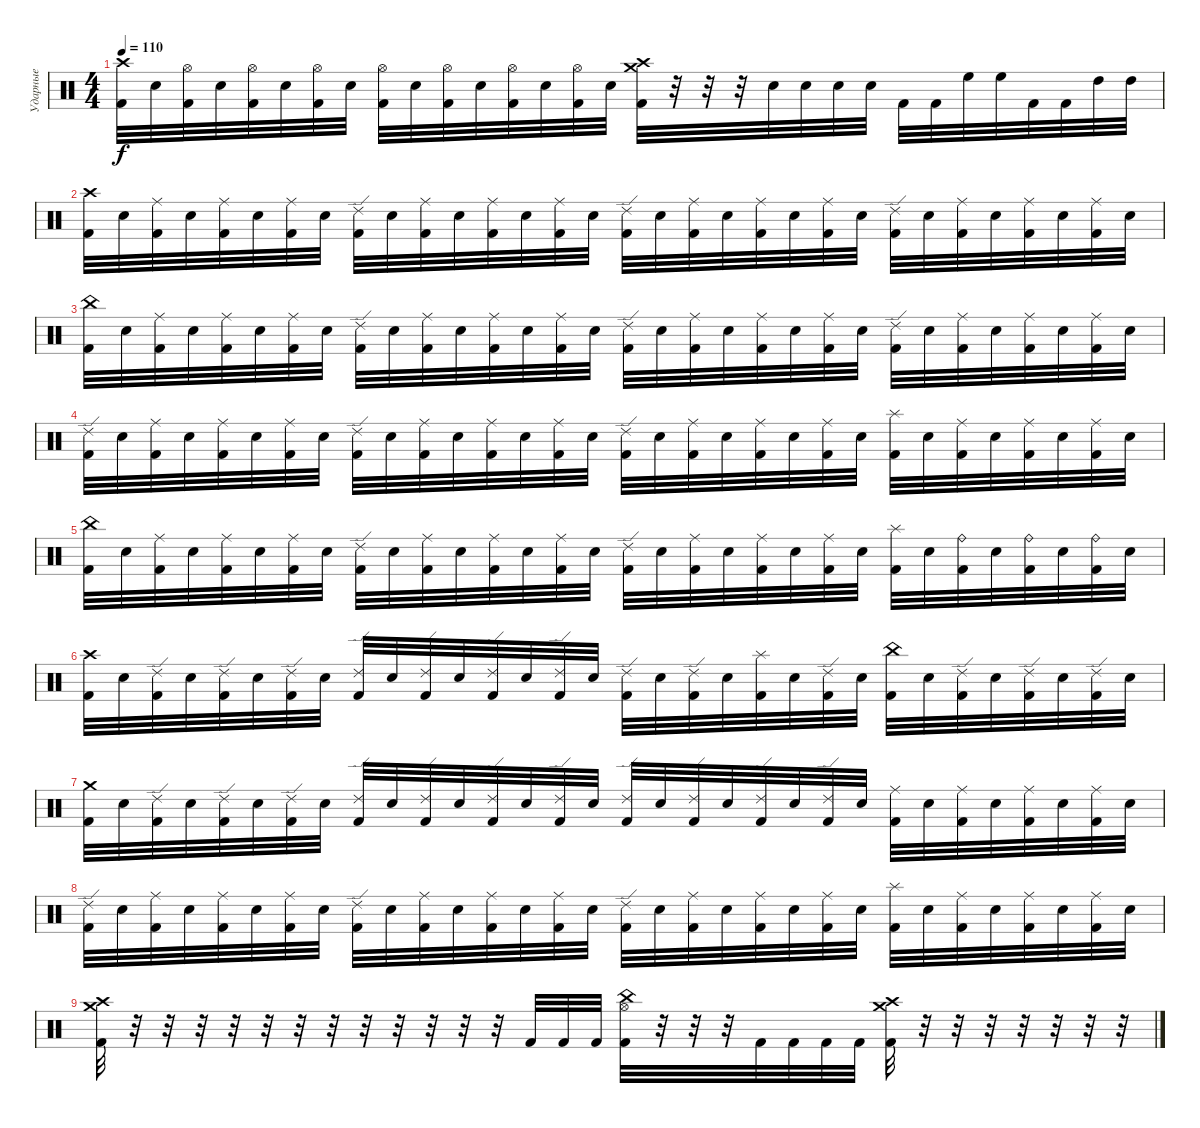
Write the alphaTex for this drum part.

\track ("Ударные" "Ударные") {instrument percussion}
\staff {score}
\articulation defaults
\ts (4 4)
\tempo 110
\clef neutral
\ks c
("Crash high (hit)" "Kick (hit) 2").32{dy f} "Electric Snare (hit)".32 ("Hi-Hat (open)" "Kick (hit) 2").32 "Electric Snare (hit)".32 ("Hi-Hat (open)" "Kick (hit) 2").32 "Electric Snare (hit)".32 ("Hi-Hat (open)" "Kick (hit) 2").32 "Electric Snare (hit)".32 ("Hi-Hat (open)" "Kick (hit) 2").32 "Electric Snare (hit)".32 ("Hi-Hat (open)" "Kick (hit) 2").32 "Electric Snare (hit)".32 ("Hi-Hat (open)" "Kick (hit) 2").32 "Electric Snare (hit)".32 ("Hi-Hat (open)" "Kick (hit) 2").32 "Electric Snare (hit)".32 ("Crash medium (hit)" "Crash high (hit)" "Kick (hit) 2").32 r.32 r.32 r.32 "Electric Snare (hit)".32 "Electric Snare (hit)".32 "Electric Snare (hit)".32 "Electric Snare (hit)".32 "Kick (hit) 2".32 "Kick (hit) 2".32 "High Floor Tom (hit)".32 "High Floor Tom (hit)".32 "Kick (hit) 2".32 "Kick (hit) 2".32 "High Tom (hit)".32 "High Tom (hit)".32 |
("Crash high (hit)" "Kick (hit) 2").32 "Electric Snare (hit)".32 ("Ride (middle)" "Kick (hit) 2").32 "Electric Snare (hit)".32 ("Ride (middle)" "Kick (hit) 2").32 "Electric Snare (hit)".32 ("Ride (middle)" "Kick (hit) 2").32 "Electric Snare (hit)".32 ("Ride (edge) 2" "Kick (hit) 2").32 "Electric Snare (hit)".32 ("Ride (middle)" "Kick (hit) 2").32 "Electric Snare (hit)".32 ("Ride (middle)" "Kick (hit) 2").32 "Electric Snare (hit)".32 ("Ride (middle)" "Kick (hit) 2").32 "Electric Snare (hit)".32 ("Ride (edge) 2" "Kick (hit) 2").32 "Electric Snare (hit)".32 ("Ride (middle)" "Kick (hit) 2").32 "Electric Snare (hit)".32 ("Ride (middle)" "Kick (hit) 2").32 "Electric Snare (hit)".32 ("Ride (middle)" "Kick (hit) 2").32 "Electric Snare (hit)".32 ("Ride (edge) 2" "Kick (hit) 2").32 "Electric Snare (hit)".32 ("Ride (middle)" "Kick (hit) 2").32 "Electric Snare (hit)".32 ("Ride (middle)" "Kick (hit) 2").32 "Electric Snare (hit)".32 ("Ride (middle)" "Kick (hit) 2").32 "Electric Snare (hit)".32 |
("China (hit)" "Kick (hit) 2").32 "Electric Snare (hit)".32 ("Ride (middle)" "Kick (hit) 2").32 "Electric Snare (hit)".32 ("Ride (middle)" "Kick (hit) 2").32 "Electric Snare (hit)".32 ("Ride (middle)" "Kick (hit) 2").32 "Electric Snare (hit)".32 ("Ride (edge) 2" "Kick (hit) 2").32 "Electric Snare (hit)".32 ("Ride (middle)" "Kick (hit) 2").32 "Electric Snare (hit)".32 ("Ride (middle)" "Kick (hit) 2").32 "Electric Snare (hit)".32 ("Ride (middle)" "Kick (hit) 2").32 "Electric Snare (hit)".32 ("Ride (edge) 2" "Kick (hit) 2").32 "Electric Snare (hit)".32 ("Ride (middle)" "Kick (hit) 2").32 "Electric Snare (hit)".32 ("Ride (middle)" "Kick (hit) 2").32 "Electric Snare (hit)".32 ("Ride (middle)" "Kick (hit) 2").32 "Electric Snare (hit)".32 ("Ride (edge) 2" "Kick (hit) 2").32 "Electric Snare (hit)".32 ("Ride (middle)" "Kick (hit) 2").32 "Electric Snare (hit)".32 ("Ride (middle)" "Kick (hit) 2").32 "Electric Snare (hit)".32 ("Ride (middle)" "Kick (hit) 2").32 "Electric Snare (hit)".32 |
("Ride (edge) 2" "Kick (hit) 2").32 "Electric Snare (hit)".32 ("Ride (middle)" "Kick (hit) 2").32 "Electric Snare (hit)".32 ("Ride (middle)" "Kick (hit) 2").32 "Electric Snare (hit)".32 ("Ride (middle)" "Kick (hit) 2").32 "Electric Snare (hit)".32 ("Ride (edge) 2" "Kick (hit) 2").32 "Electric Snare (hit)".32 ("Ride (middle)" "Kick (hit) 2").32 "Electric Snare (hit)".32 ("Ride (middle)" "Kick (hit) 2").32 "Electric Snare (hit)".32 ("Ride (middle)" "Kick (hit) 2").32 "Electric Snare (hit)".32 ("Ride (edge) 2" "Kick (hit) 2").32 "Electric Snare (hit)".32 ("Ride (middle)" "Kick (hit) 2").32 "Electric Snare (hit)".32 ("Ride (middle)" "Kick (hit) 2").32 "Electric Snare (hit)".32 ("Ride (middle)" "Kick (hit) 2").32 "Electric Snare (hit)".32 ("Splash (hit)" "Kick (hit) 2").32 "Electric Snare (hit)".32 ("Ride (middle)" "Kick (hit) 2").32 "Electric Snare (hit)".32 ("Ride (middle)" "Kick (hit) 2").32 "Electric Snare (hit)".32 ("Ride (middle)" "Kick (hit) 2").32 "Electric Snare (hit)".32 |
("China (hit)" "Kick (hit) 2").32 "Electric Snare (hit)".32 ("Ride (middle)" "Kick (hit) 2").32 "Electric Snare (hit)".32 ("Ride (middle)" "Kick (hit) 2").32 "Electric Snare (hit)".32 ("Ride (middle)" "Kick (hit) 2").32 "Electric Snare (hit)".32 ("Ride (edge) 2" "Kick (hit) 2").32 "Electric Snare (hit)".32 ("Ride (middle)" "Kick (hit) 2").32 "Electric Snare (hit)".32 ("Ride (middle)" "Kick (hit) 2").32 "Electric Snare (hit)".32 ("Ride (middle)" "Kick (hit) 2").32 "Electric Snare (hit)".32 ("Ride (edge) 2" "Kick (hit) 2").32 "Electric Snare (hit)".32 ("Ride (middle)" "Kick (hit) 2").32 "Electric Snare (hit)".32 ("Ride (middle)" "Kick (hit) 2").32 "Electric Snare (hit)".32 ("Ride (middle)" "Kick (hit) 2").32 "Electric Snare (hit)".32 ("Splash (hit)" "Kick (hit) 2").32 "Electric Snare (hit)".32 ("Ride (bell)" "Kick (hit) 2").32 "Electric Snare (hit)".32 ("Ride (bell)" "Kick (hit) 2").32 "Electric Snare (hit)".32 ("Ride (bell)" "Kick (hit) 2").32 "Electric Snare (hit)".32 |
("Crash high (hit)" "Kick (hit) 2").32 "Electric Snare (hit)".32 ("Ride (edge) 2" "Kick (hit) 2").32 "Electric Snare (hit)".32 ("Ride (edge) 2" "Kick (hit) 2").32 "Electric Snare (hit)".32 ("Ride (edge) 2" "Kick (hit) 2").32 "Electric Snare (hit)".32 ("Ride (edge) 2" "Kick (hit) 2").32 "Electric Snare (hit)".32 ("Ride (edge) 2" "Kick (hit) 2").32 "Electric Snare (hit)".32 ("Ride (edge) 2" "Kick (hit) 2").32 "Electric Snare (hit)".32 ("Ride (edge) 2" "Kick (hit) 2").32 "Electric Snare (hit)".32 ("Ride (edge) 2" "Kick (hit) 2").32 "Electric Snare (hit)".32 ("Ride (edge) 2" "Kick (hit) 2").32 "Electric Snare (hit)".32 ("Splash (hit)" "Kick (hit) 2").32 "Electric Snare (hit)".32 ("Ride (edge) 2" "Kick (hit) 2").32 "Electric Snare (hit)".32 ("China (hit)" "Kick (hit) 2").32 "Electric Snare (hit)".32 ("Ride (edge) 2" "Kick (hit) 2").32 "Electric Snare (hit)".32 ("Ride (edge) 2" "Kick (hit) 2").32 "Electric Snare (hit)".32 ("Ride (edge) 2" "Kick (hit) 2").32 "Electric Snare (hit)".32 |
("Crash medium (hit)" "Kick (hit) 2").32 "Electric Snare (hit)".32 ("Ride (edge) 2" "Kick (hit) 2").32 "Electric Snare (hit)".32 ("Ride (edge) 2" "Kick (hit) 2").32 "Electric Snare (hit)".32 ("Ride (edge) 2" "Kick (hit) 2").32 "Electric Snare (hit)".32 ("Ride (edge) 2" "Kick (hit) 2").32 "Electric Snare (hit)".32 ("Ride (edge) 2" "Kick (hit) 2").32 "Electric Snare (hit)".32 ("Ride (edge) 2" "Kick (hit) 2").32 "Electric Snare (hit)".32 ("Ride (edge) 2" "Kick (hit) 2").32 "Electric Snare (hit)".32 ("Ride (edge) 2" "Kick (hit) 2").32 "Electric Snare (hit)".32 ("Ride (edge) 2" "Kick (hit) 2").32 "Electric Snare (hit)".32 ("Ride (edge) 2" "Kick (hit) 2").32 "Electric Snare (hit)".32 ("Ride (edge) 2" "Kick (hit) 2").32 "Electric Snare (hit)".32 ("Ride (middle)" "Kick (hit) 2").32 "Electric Snare (hit)".32 ("Ride (middle)" "Kick (hit) 2").32 "Electric Snare (hit)".32 ("Ride (middle)" "Kick (hit) 2").32 "Electric Snare (hit)".32 ("Ride (middle)" "Kick (hit) 2").32 "Electric Snare (hit)".32 |
("Ride (edge) 2" "Kick (hit) 2").32 "Electric Snare (hit)".32 ("Ride (middle)" "Kick (hit) 2").32 "Electric Snare (hit)".32 ("Ride (middle)" "Kick (hit) 2").32 "Electric Snare (hit)".32 ("Ride (middle)" "Kick (hit) 2").32 "Electric Snare (hit)".32 ("Ride (edge) 2" "Kick (hit) 2").32 "Electric Snare (hit)".32 ("Ride (middle)" "Kick (hit) 2").32 "Electric Snare (hit)".32 ("Ride (middle)" "Kick (hit) 2").32 "Electric Snare (hit)".32 ("Ride (middle)" "Kick (hit) 2").32 "Electric Snare (hit)".32 ("Ride (edge) 2" "Kick (hit) 2").32 "Electric Snare (hit)".32 ("Ride (middle)" "Kick (hit) 2").32 "Electric Snare (hit)".32 ("Ride (middle)" "Kick (hit) 2").32 "Electric Snare (hit)".32 ("Ride (middle)" "Kick (hit) 2").32 "Electric Snare (hit)".32 ("Splash (hit)" "Kick (hit) 2").32 "Electric Snare (hit)".32 ("Ride (middle)" "Kick (hit) 2").32 "Electric Snare (hit)".32 ("Ride (middle)" "Kick (hit) 2").32 "Electric Snare (hit)".32 ("Ride (middle)" "Kick (hit) 2").32 "Electric Snare (hit)".32 |
("Crash medium (hit)" "Crash high (hit)" "Kick (hit) 2").32 r.32 r.32 r.32 r.32 r.32 r.32 r.32 r.32 r.32 r.32 r.32 r.32 "Kick (hit) 2".32 "Kick (hit) 2".32 "Kick (hit) 2".32 ("China (hit)" "Hi-Hat (open)" "Kick (hit) 2").32 r.32 r.32 r.32 "Kick (hit) 2".32 "Kick (hit) 2".32 "Kick (hit) 2".32 "Kick (hit) 2".32 ("Crash medium (hit)" "Crash high (hit)" "Kick (hit) 2").32 r.32 r.32 r.32 r.32 r.32 r.32 r.32
